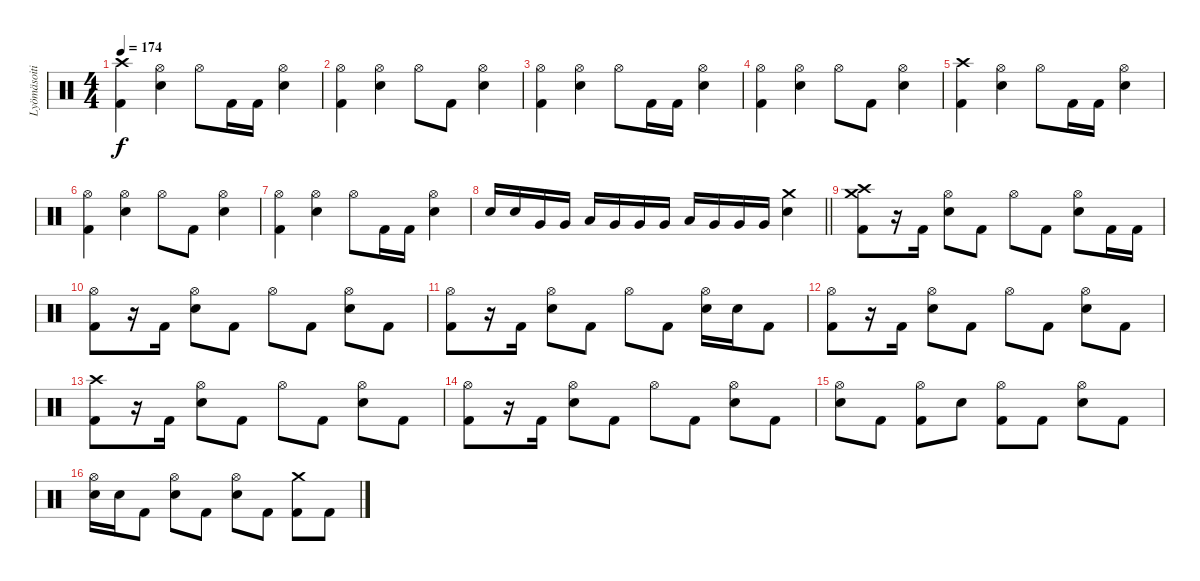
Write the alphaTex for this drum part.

\track ("Lyömäsoitin" "Lyömäsoiti") {instrument percussion}
\staff {score}
\articulation defaults
\ts (4 4)
\tempo 174
\clef neutral
\ks c
("Crash high (hit)" "Kick (hit) 2").4{dy f} ("Hi-Hat (open)" "Electric Snare (hit)").4 "Hi-Hat (open)".8 "Kick (hit) 2".16 "Kick (hit) 2".16 ("Hi-Hat (open)" "Electric Snare (hit)").4 |
("Hi-Hat (open)" "Kick (hit) 2").4 ("Hi-Hat (open)" "Electric Snare (hit)").4 "Hi-Hat (open)".8 "Kick (hit) 2".8 ("Hi-Hat (open)" "Electric Snare (hit)").4 |
("Hi-Hat (open)" "Kick (hit) 2").4 ("Hi-Hat (open)" "Electric Snare (hit)").4 "Hi-Hat (open)".8 "Kick (hit) 2".16 "Kick (hit) 2".16 ("Hi-Hat (open)" "Electric Snare (hit)").4 |
("Hi-Hat (open)" "Kick (hit) 2").4 ("Hi-Hat (open)" "Electric Snare (hit)").4 "Hi-Hat (open)".8 "Kick (hit) 2".8 ("Hi-Hat (open)" "Electric Snare (hit)").4 |
("Crash high (hit)" "Kick (hit) 2").4 ("Hi-Hat (open)" "Electric Snare (hit)").4 "Hi-Hat (open)".8 "Kick (hit) 2".16 "Kick (hit) 2".16 ("Hi-Hat (open)" "Electric Snare (hit)").4 |
("Hi-Hat (open)" "Kick (hit) 2").4 ("Hi-Hat (open)" "Electric Snare (hit)").4 "Hi-Hat (open)".8 "Kick (hit) 2".8 ("Hi-Hat (open)" "Electric Snare (hit)").4 |
("Hi-Hat (open)" "Kick (hit) 2").4 ("Hi-Hat (open)" "Electric Snare (hit)").4 "Hi-Hat (open)".8 "Kick (hit) 2".16 "Kick (hit) 2".16 ("Hi-Hat (open)" "Electric Snare (hit)").4 |
\barLineRight lightlight "Electric Snare (hit)".16 "Electric Snare (hit)".16 "Very Low Tom (hit)".16 "Very Low Tom (hit)".16 "Low Tom (hit)".16 "Very Low Tom (hit)".16 "Very Low Tom (hit)".16 "Very Low Tom (hit)".16 "Low Tom (hit)".16 "Very Low Tom (hit)".16 "Very Low Tom (hit)".16 "Very Low Tom (hit)".16
("Crash medium (hit)" "Electric Snare (hit)").4 |
\section ("" "")
("Crash medium (hit)" "Crash high (hit)" "Kick (hit) 2").8 r.16 "Kick (hit) 2".16 ("Hi-Hat (open)" "Electric Snare (hit)").8 "Kick (hit) 2".8 "Hi-Hat (open)".8 "Kick (hit) 2".8 ("Hi-Hat (open)" "Electric Snare (hit)").8 "Kick (hit) 2".16 "Kick (hit) 2".16 |
("Hi-Hat (open)" "Kick (hit) 2").8 r.16 "Kick (hit) 2".16 ("Hi-Hat (open)" "Electric Snare (hit)").8 "Kick (hit) 2".8 "Hi-Hat (open)".8 "Kick (hit) 2".8 ("Hi-Hat (open)" "Electric Snare (hit)").8 "Kick (hit) 2".8 |
("Hi-Hat (open)" "Kick (hit) 2").8 r.16 "Kick (hit) 2".16 ("Hi-Hat (open)" "Electric Snare (hit)").8 "Kick (hit) 2".8 "Hi-Hat (open)".8 "Kick (hit) 2".8 ("Hi-Hat (open)" "Electric Snare (hit)").16 "Electric Snare (hit)".16 "Kick (hit) 2".8 |
("Hi-Hat (open)" "Kick (hit) 2").8 r.16 "Kick (hit) 2".16 ("Hi-Hat (open)" "Electric Snare (hit)").8 "Kick (hit) 2".8 "Hi-Hat (open)".8 "Kick (hit) 2".8 ("Hi-Hat (open)" "Electric Snare (hit)").8 "Kick (hit) 2".8 |
("Crash high (hit)" "Kick (hit) 2").8 r.16 "Kick (hit) 2".16 ("Hi-Hat (open)" "Electric Snare (hit)").8 "Kick (hit) 2".8 "Hi-Hat (open)".8 "Kick (hit) 2".8 ("Hi-Hat (open)" "Electric Snare (hit)").8 "Kick (hit) 2".8 |
("Hi-Hat (open)" "Kick (hit) 2").8 r.16 "Kick (hit) 2".16 ("Hi-Hat (open)" "Electric Snare (hit)").8 "Kick (hit) 2".8 "Hi-Hat (open)".8 "Kick (hit) 2".8 ("Hi-Hat (open)" "Electric Snare (hit)").8 "Kick (hit) 2".8 |
("Hi-Hat (open)" "Electric Snare (hit)").8 "Kick (hit) 2".8 ("Hi-Hat (open)" "Kick (hit) 2").8 "Electric Snare (hit)".8 ("Hi-Hat (open)" "Kick (hit) 2").8 "Kick (hit) 2".8 ("Hi-Hat (open)" "Electric Snare (hit)").8 "Kick (hit) 2".8 |
("Hi-Hat (open)" "Electric Snare (hit)").16 "Electric Snare (hit)".16 "Kick (hit) 2".8 ("Hi-Hat (open)" "Electric Snare (hit)").8 "Kick (hit) 2".8 ("Hi-Hat (open)" "Electric Snare (hit)").8 "Kick (hit) 2".8 ("Crash medium (hit)" "Kick (hit) 2").8 "Kick (hit) 2".8
